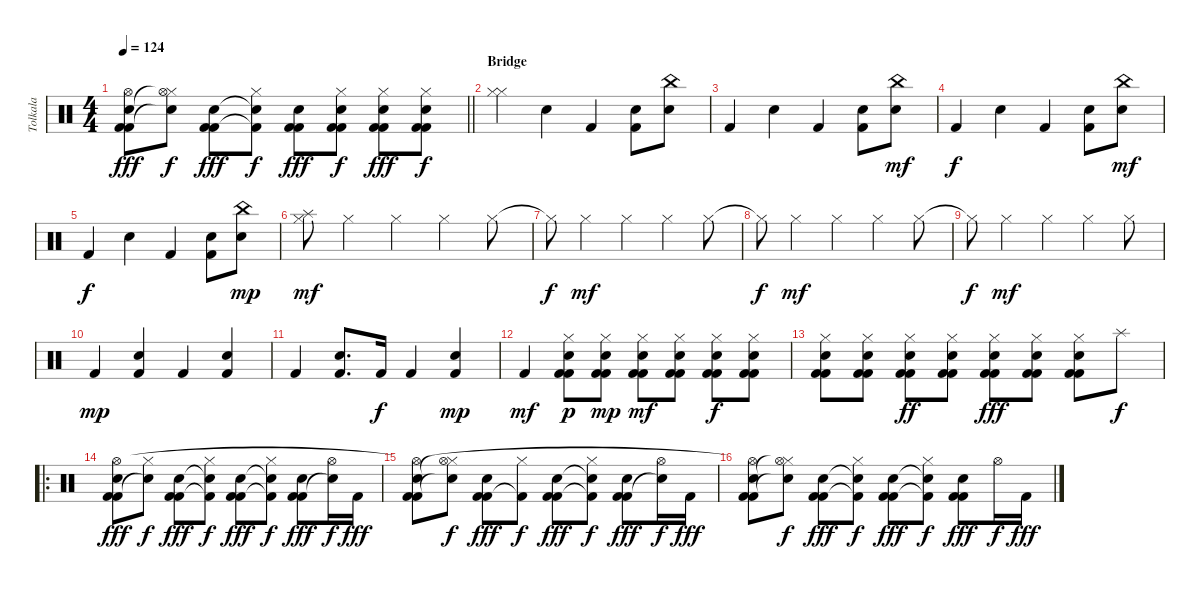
\track ("Tolkala" "Tolkala") {instrument percussion}
\staff {score}
\articulation defaults
\ts (4 4)
\tempo 124
\clef neutral
\barLineRight lightlight
\ks c
("Kick (hit) 2" "Kick (hit) 2" "Snare (hit) 2" "Hi-Hat (open)"{t}).8{dy fff} ("Hi-Hat (closed)" "Snare (hit) 2"{t} "Hi-Hat (open)"{t}).8{dy f} ("Kick (hit) 2" "Kick (hit) 2" "Snare (hit) 2").8{dy fff} ("Kick (hit) 2"{t} "Hi-Hat (closed)" "Snare (hit) 2"{t}).8{dy f} ("Kick (hit) 2" "Kick (hit) 2" "Snare (hit) 2").8{dy fff} ("Kick (hit) 2" "Kick (hit) 2" "Hi-Hat (closed)" "Snare (hit) 2").8{dy f} ("Kick (hit) 2" "Kick (hit) 2" "Hi-Hat (closed)" "Snare (hit) 2").8{dy fff} ("Kick (hit) 2" "Kick (hit) 2" "Hi-Hat (closed)" "Snare (hit) 2").8{dy f} |
\section ("" "Bridge")
("Hi-Hat (closed)" "Hi-Hat (closed)").4 "Snare (hit) 2".4{volume 10} "Kick (hit) 2".4 ("Kick (hit) 2" "Snare (hit) 2").8 ("Snare (hit) 2" "China (hit)").8 |
"Kick (hit) 2".4{volume 9} "Snare (hit) 2".4 "Kick (hit) 2".4{volume 8} ("Kick (hit) 2" "Snare (hit) 2").8 ("Snare (hit) 2" "China (hit)").8{dy mf volume 7} |
"Kick (hit) 2".4{dy f volume 6} "Snare (hit) 2".4 "Kick (hit) 2".4{volume 5} ("Kick (hit) 2" "Snare (hit) 2").8 ("Snare (hit) 2" "China (hit)").8{dy mf volume 4} |
"Kick (hit) 2".4{dy f volume 3} "Snare (hit) 2".4 "Kick (hit) 2".4 ("Kick (hit) 2" "Snare (hit) 2").8 ("Snare (hit) 2" "China (hit)").8{dy mp} |
("Splash (hit)" "Hi-Hat (closed)").8{dy mf volume 14} "Hi-Hat (closed)".4 "Hi-Hat (closed)".4 "Hi-Hat (closed)".4 "Hi-Hat (closed)".8 |
"Hi-Hat (closed)"{t}.8{dy f} "Hi-Hat (closed)".4{dy mf} "Hi-Hat (closed)".4 "Hi-Hat (closed)".4 "Hi-Hat (closed)".8 |
"Hi-Hat (closed)"{t}.8{dy f} "Hi-Hat (closed)".4{dy mf} "Hi-Hat (closed)".4 "Hi-Hat (closed)".4 "Hi-Hat (closed)".8 |
"Hi-Hat (closed)"{t}.8{dy f} "Hi-Hat (closed)".4{dy mf} "Hi-Hat (closed)".4 "Hi-Hat (closed)".4 "Hi-Hat (closed)".8 |
"Kick (hit) 2".4{dy mp volume 13} ("Kick (hit) 2" "Electric Snare (hit)").4 "Kick (hit) 2".4 ("Kick (hit) 2" "Electric Snare (hit)").4 |
"Kick (hit) 2".4 ("Kick (hit) 2" "Electric Snare (hit)").8{d} "Kick (hit) 2".16{dy f} "Kick (hit) 2".4 ("Kick (hit) 2" "Electric Snare (hit)").4{dy mp} |
"Kick (hit) 2".4{dy mf} ("Kick (hit) 2" "Kick (hit) 2" "Hi-Hat (closed)" "Snare (hit) 2").8{dy p} ("Kick (hit) 2" "Kick (hit) 2" "Hi-Hat (closed)" "Snare (hit) 2").8{dy mp} ("Kick (hit) 2" "Kick (hit) 2" "Hi-Hat (closed)" "Snare (hit) 2").8{dy mf} ("Kick (hit) 2" "Kick (hit) 2" "Hi-Hat (closed)" "Snare (hit) 2").8 ("Kick (hit) 2" "Kick (hit) 2" "Hi-Hat (closed)" "Snare (hit) 2").8{dy f volume 14} ("Kick (hit) 2" "Kick (hit) 2" "Hi-Hat (closed)" "Snare (hit) 2").8 |
("Kick (hit) 2" "Kick (hit) 2" "Hi-Hat (closed)" "Snare (hit) 2").8{volume 15} ("Kick (hit) 2" "Kick (hit) 2" "Hi-Hat (closed)" "Snare (hit) 2").8 ("Kick (hit) 2" "Kick (hit) 2" "Hi-Hat (closed)" "Snare (hit) 2").8{dy ff} ("Kick (hit) 2" "Kick (hit) 2" "Hi-Hat (closed)" "Snare (hit) 2").8{volume 16} ("Kick (hit) 2" "Kick (hit) 2" "Hi-Hat (closed)" "Snare (hit) 2").8{dy fff} ("Kick (hit) 2" "Kick (hit) 2" "Hi-Hat (closed)" "Snare (hit) 2").8 ("Kick (hit) 2" "Kick (hit) 2" "Hi-Hat (closed)" "Snare (hit) 2").8 "Splash (hit)".8{dy f} |
\ro
("Kick (hit) 2" "Kick (hit) 2" "Snare (hit) 2" "Hi-Hat (open)").8{dy fff volume 16} ("Hi-Hat (closed)" "Snare (hit) 2"{t}).8{dy f} ("Kick (hit) 2" "Kick (hit) 2" "Snare (hit) 2").8{dy fff} ("Kick (hit) 2"{t} "Hi-Hat (closed)" "Snare (hit) 2"{t}).8{dy f} ("Kick (hit) 2" "Kick (hit) 2" "Snare (hit) 2").8{dy fff} ("Kick (hit) 2"{t} "Hi-Hat (closed)" "Snare (hit) 2"{t}).8{dy f} ("Kick (hit) 2" "Kick (hit) 2" "Snare (hit) 2").8{dy fff} ("Snare (hit) 2"{t} "Hi-Hat (open)").16{dy f} "Kick (hit) 2".16{dy fff} |
("Kick (hit) 2" "Kick (hit) 2" "Snare (hit) 2" "Hi-Hat (open)"{t}).8 ("Hi-Hat (closed)" "Snare (hit) 2"{t} "Hi-Hat (open)"{t}).8{dy f} ("Kick (hit) 2" "Kick (hit) 2" "Snare (hit) 2").8{dy fff} ("Kick (hit) 2"{t} "Hi-Hat (closed)").8{dy f} ("Kick (hit) 2" "Kick (hit) 2" "Snare (hit) 2").8{dy fff} ("Kick (hit) 2"{t} "Hi-Hat (closed)" "Snare (hit) 2"{t}).8{dy f} ("Kick (hit) 2" "Kick (hit) 2" "Snare (hit) 2").8{dy fff} ("Snare (hit) 2"{t} "Hi-Hat (open)").16{dy f} "Kick (hit) 2".16{dy fff} |
("Kick (hit) 2" "Kick (hit) 2" "Snare (hit) 2" "Hi-Hat (open)"{t}).8 ("Hi-Hat (closed)" "Snare (hit) 2"{t} "Hi-Hat (open)"{t}).8{dy f} ("Kick (hit) 2" "Kick (hit) 2" "Snare (hit) 2").8{dy fff} ("Kick (hit) 2"{t} "Hi-Hat (closed)" "Snare (hit) 2"{t}).8{dy f} ("Kick (hit) 2" "Kick (hit) 2" "Snare (hit) 2").8{dy fff} ("Kick (hit) 2"{t} "Hi-Hat (closed)" "Snare (hit) 2"{t}).8{dy f} ("Kick (hit) 2" "Kick (hit) 2" "Snare (hit) 2").8{dy fff} "Hi-Hat (open)".16{dy f} "Kick (hit) 2".16{dy fff}
